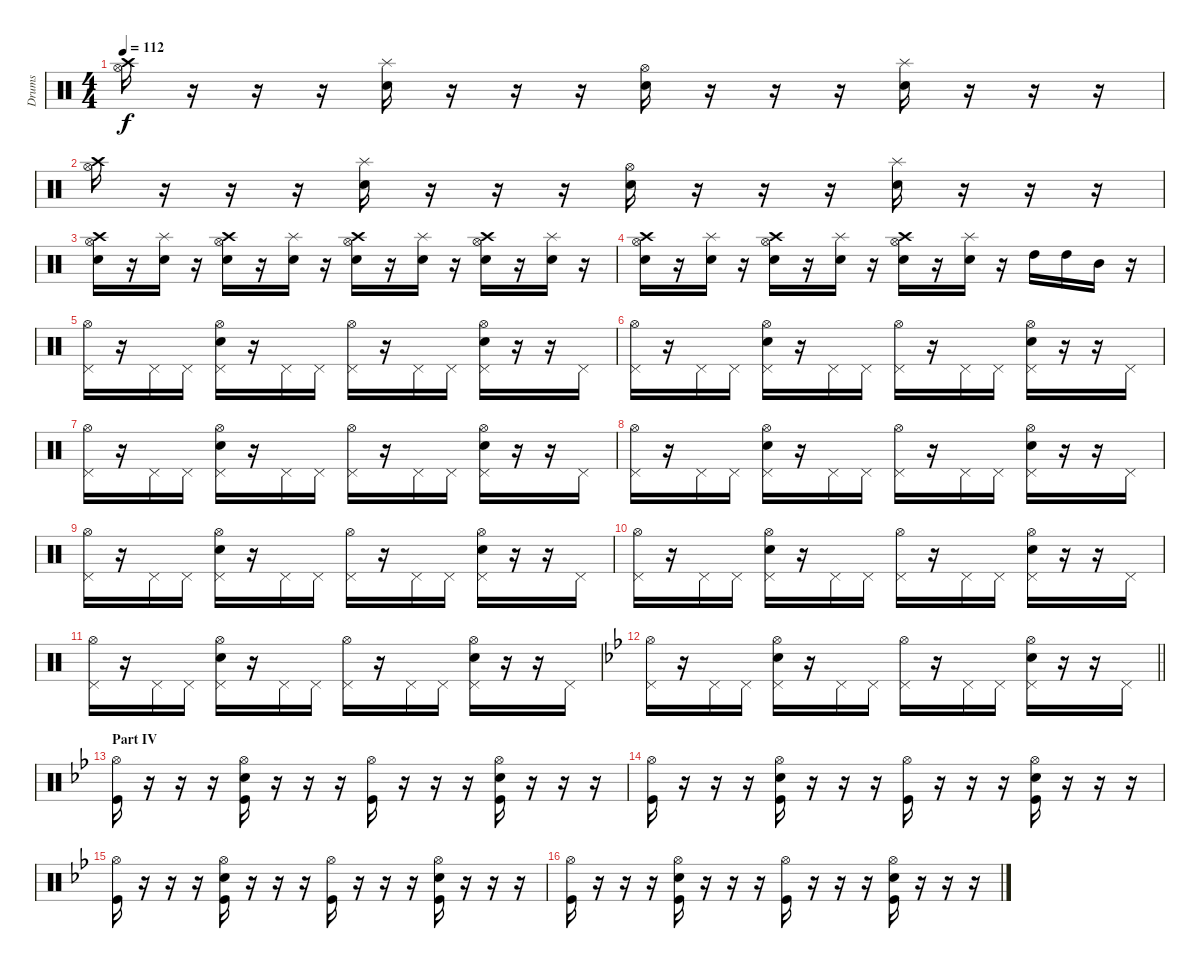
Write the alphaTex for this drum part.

\track ("Drums" "Drums") {instrument percussion}
\staff {score}
\articulation defaults
\ts (4 4)
\tempo 112
\clef neutral
\ks c
("Hi-Hat (open)" "Crash high (hit)").16{dy f} r.16 r.16 r.16 ("Electric Snare (hit)" "Splash (hit)").16 r.16 r.16 r.16 ("Hi-Hat (open)" "Electric Snare (hit)").16 r.16 r.16 r.16 ("Electric Snare (hit)" "Splash (hit)").16 r.16 r.16 r.16 |
("Hi-Hat (open)" "Crash high (hit)").16 r.16 r.16 r.16 ("Electric Snare (hit)" "Splash (hit)").16 r.16 r.16 r.16 ("Hi-Hat (open)" "Electric Snare (hit)").16 r.16 r.16 r.16 ("Electric Snare (hit)" "Splash (hit)").16 r.16 r.16 r.16 |
("Hi-Hat (open)" "Electric Snare (hit)" "Crash high (hit)").16 r.16 ("Electric Snare (hit)" "Splash (hit)").16 r.16 ("Hi-Hat (open)" "Electric Snare (hit)" "Crash high (hit)").16 r.16 ("Electric Snare (hit)" "Splash (hit)").16 r.16 ("Hi-Hat (open)" "Electric Snare (hit)" "Crash high (hit)").16 r.16 ("Electric Snare (hit)" "Splash (hit)").16 r.16 ("Hi-Hat (open)" "Electric Snare (hit)" "Crash high (hit)").16 r.16 ("Electric Snare (hit)" "Splash (hit)").16 r.16 |
("Hi-Hat (open)" "Electric Snare (hit)" "Crash high (hit)").16 r.16 ("Electric Snare (hit)" "Splash (hit)").16 r.16 ("Hi-Hat (open)" "Electric Snare (hit)" "Crash high (hit)").16 r.16 ("Electric Snare (hit)" "Splash (hit)").16 r.16 ("Hi-Hat (open)" "Electric Snare (hit)" "Crash high (hit)").16 r.16 ("Electric Snare (hit)" "Splash (hit)").16 r.16 "High Tom (hit)".16 "High Tom (hit)".16 "Mid Tom (hit)".16 r.16 |
("Pedal Hi-Hat (hit)" "Hi-Hat (open)").16 r.16 "Pedal Hi-Hat (hit)".16 "Pedal Hi-Hat (hit)".16 ("Pedal Hi-Hat (hit)" "Hi-Hat (open)" "Electric Snare (hit)").16 r.16 "Pedal Hi-Hat (hit)".16 "Pedal Hi-Hat (hit)".16 ("Pedal Hi-Hat (hit)" "Hi-Hat (open)").16 r.16 "Pedal Hi-Hat (hit)".16 "Pedal Hi-Hat (hit)".16 ("Pedal Hi-Hat (hit)" "Hi-Hat (open)" "Electric Snare (hit)").16 r.16 r.16 "Pedal Hi-Hat (hit)".16 |
("Pedal Hi-Hat (hit)" "Hi-Hat (open)").16 r.16 "Pedal Hi-Hat (hit)".16 "Pedal Hi-Hat (hit)".16 ("Pedal Hi-Hat (hit)" "Hi-Hat (open)" "Electric Snare (hit)").16 r.16 "Pedal Hi-Hat (hit)".16 "Pedal Hi-Hat (hit)".16 ("Pedal Hi-Hat (hit)" "Hi-Hat (open)").16 r.16 "Pedal Hi-Hat (hit)".16 "Pedal Hi-Hat (hit)".16 ("Pedal Hi-Hat (hit)" "Hi-Hat (open)" "Electric Snare (hit)").16 r.16 r.16 "Pedal Hi-Hat (hit)".16 |
("Pedal Hi-Hat (hit)" "Hi-Hat (open)").16 r.16 "Pedal Hi-Hat (hit)".16 "Pedal Hi-Hat (hit)".16 ("Pedal Hi-Hat (hit)" "Hi-Hat (open)" "Electric Snare (hit)").16 r.16 "Pedal Hi-Hat (hit)".16 "Pedal Hi-Hat (hit)".16 ("Pedal Hi-Hat (hit)" "Hi-Hat (open)").16 r.16 "Pedal Hi-Hat (hit)".16 "Pedal Hi-Hat (hit)".16 ("Pedal Hi-Hat (hit)" "Hi-Hat (open)" "Electric Snare (hit)").16 r.16 r.16 "Pedal Hi-Hat (hit)".16 |
("Pedal Hi-Hat (hit)" "Hi-Hat (open)").16 r.16 "Pedal Hi-Hat (hit)".16 "Pedal Hi-Hat (hit)".16 ("Pedal Hi-Hat (hit)" "Hi-Hat (open)" "Electric Snare (hit)").16 r.16 "Pedal Hi-Hat (hit)".16 "Pedal Hi-Hat (hit)".16 ("Pedal Hi-Hat (hit)" "Hi-Hat (open)").16 r.16 "Pedal Hi-Hat (hit)".16 "Pedal Hi-Hat (hit)".16 ("Pedal Hi-Hat (hit)" "Hi-Hat (open)" "Electric Snare (hit)").16 r.16 r.16 "Pedal Hi-Hat (hit)".16 |
("Pedal Hi-Hat (hit)" "Hi-Hat (open)").16 r.16 "Pedal Hi-Hat (hit)".16 "Pedal Hi-Hat (hit)".16 ("Pedal Hi-Hat (hit)" "Hi-Hat (open)" "Electric Snare (hit)").16 r.16 "Pedal Hi-Hat (hit)".16 "Pedal Hi-Hat (hit)".16 ("Pedal Hi-Hat (hit)" "Hi-Hat (open)").16 r.16 "Pedal Hi-Hat (hit)".16 "Pedal Hi-Hat (hit)".16 ("Pedal Hi-Hat (hit)" "Hi-Hat (open)" "Electric Snare (hit)").16 r.16 r.16 "Pedal Hi-Hat (hit)".16 |
("Pedal Hi-Hat (hit)" "Hi-Hat (open)").16 r.16 "Pedal Hi-Hat (hit)".16 "Pedal Hi-Hat (hit)".16 ("Pedal Hi-Hat (hit)" "Hi-Hat (open)" "Electric Snare (hit)").16 r.16 "Pedal Hi-Hat (hit)".16 "Pedal Hi-Hat (hit)".16 ("Pedal Hi-Hat (hit)" "Hi-Hat (open)").16 r.16 "Pedal Hi-Hat (hit)".16 "Pedal Hi-Hat (hit)".16 ("Pedal Hi-Hat (hit)" "Hi-Hat (open)" "Electric Snare (hit)").16 r.16 r.16 "Pedal Hi-Hat (hit)".16 |
("Pedal Hi-Hat (hit)" "Hi-Hat (open)").16 r.16 "Pedal Hi-Hat (hit)".16 "Pedal Hi-Hat (hit)".16 ("Pedal Hi-Hat (hit)" "Hi-Hat (open)" "Electric Snare (hit)").16 r.16 "Pedal Hi-Hat (hit)".16 "Pedal Hi-Hat (hit)".16 ("Pedal Hi-Hat (hit)" "Hi-Hat (open)").16 r.16 "Pedal Hi-Hat (hit)".16 "Pedal Hi-Hat (hit)".16 ("Pedal Hi-Hat (hit)" "Hi-Hat (open)" "Electric Snare (hit)").16 r.16 r.16 "Pedal Hi-Hat (hit)".16 |
\barLineRight lightlight
\ks bb
("Pedal Hi-Hat (hit)" "Hi-Hat (open)").16 r.16 "Pedal Hi-Hat (hit)".16 "Pedal Hi-Hat (hit)".16 ("Pedal Hi-Hat (hit)" "Hi-Hat (open)" "Electric Snare (hit)").16 r.16 "Pedal Hi-Hat (hit)".16 "Pedal Hi-Hat (hit)".16 ("Pedal Hi-Hat (hit)" "Hi-Hat (open)").16 r.16 "Pedal Hi-Hat (hit)".16 "Pedal Hi-Hat (hit)".16 ("Pedal Hi-Hat (hit)" "Hi-Hat (open)" "Electric Snare (hit)").16 r.16 r.16 "Pedal Hi-Hat (hit)".16 |
\section ("" "Part IV")
("Hi-Hat (open)" "Kick (hit)").16 r.16 r.16 r.16 ("Hi-Hat (open)" "Electric Snare (hit)" "Kick (hit)").16 r.16 r.16 r.16 ("Hi-Hat (open)" "Kick (hit)").16 r.16 r.16 r.16 ("Hi-Hat (open)" "Electric Snare (hit)" "Kick (hit)").16 r.16 r.16 r.16 |
("Hi-Hat (open)" "Kick (hit)").16 r.16 r.16 r.16 ("Hi-Hat (open)" "Electric Snare (hit)" "Kick (hit)").16 r.16 r.16 r.16 ("Hi-Hat (open)" "Kick (hit)").16 r.16 r.16 r.16 ("Hi-Hat (open)" "Electric Snare (hit)" "Kick (hit)").16 r.16 r.16 r.16 |
("Hi-Hat (open)" "Kick (hit)").16 r.16 r.16 r.16 ("Hi-Hat (open)" "Electric Snare (hit)" "Kick (hit)").16 r.16 r.16 r.16 ("Hi-Hat (open)" "Kick (hit)").16 r.16 r.16 r.16 ("Hi-Hat (open)" "Electric Snare (hit)" "Kick (hit)").16 r.16 r.16 r.16 |
("Hi-Hat (open)" "Kick (hit)").16 r.16 r.16 r.16 ("Hi-Hat (open)" "Electric Snare (hit)" "Kick (hit)").16 r.16 r.16 r.16 ("Hi-Hat (open)" "Kick (hit)").16 r.16 r.16 r.16 ("Hi-Hat (open)" "Electric Snare (hit)" "Kick (hit)").16 r.16 r.16 r.16
